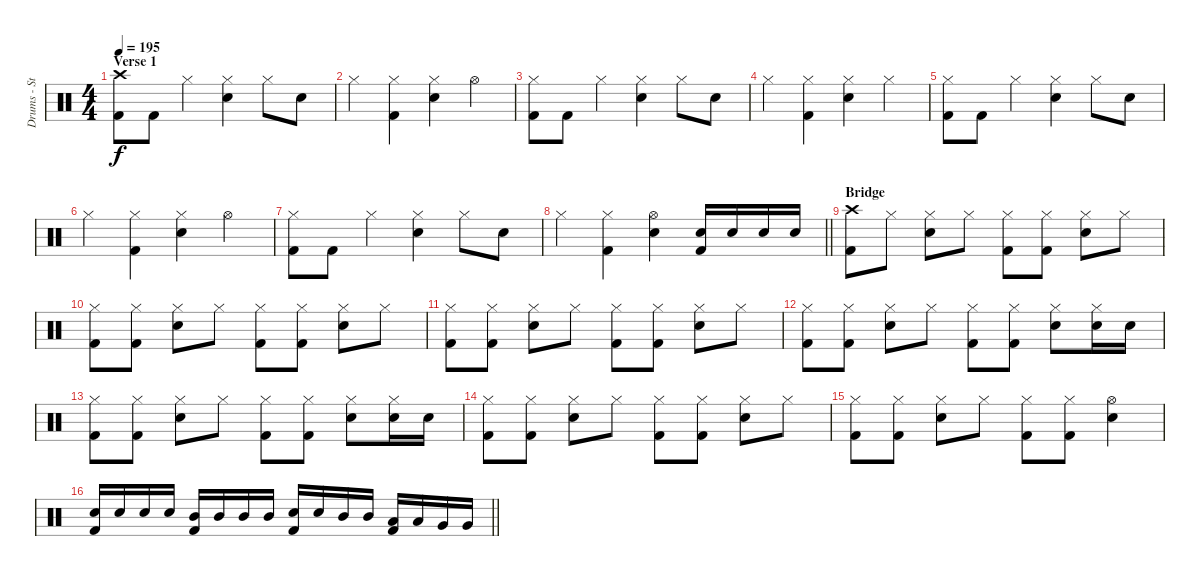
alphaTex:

\track ("Drums - Steve" "Drums - St") {instrument percussion}
\staff {score}
\articulation defaults
\ts (4 4)
\section ("" "Verse 1")
\tempo 195
\clef neutral
\ks c
("Crash high (hit)" "Kick (hit) 2").8{dy f} "Kick (hit) 2".8 "Hi-Hat (closed)".4 ("Hi-Hat (closed)" "Snare (hit) 2").4 "Hi-Hat (closed)".8 "Snare (hit) 2".8 |
"Hi-Hat (closed)".4 ("Hi-Hat (closed)" "Kick (hit) 2").4 ("Hi-Hat (closed)" "Snare (hit) 2").4 "Hi-Hat (open)".4 |
("Hi-Hat (closed)" "Kick (hit) 2").8 "Kick (hit) 2".8 "Hi-Hat (closed)".4 ("Hi-Hat (closed)" "Snare (hit) 2").4 "Hi-Hat (closed)".8 "Snare (hit) 2".8 |
"Hi-Hat (closed)".4 ("Hi-Hat (closed)" "Kick (hit) 2").4 ("Hi-Hat (closed)" "Snare (hit) 2").4 "Hi-Hat (closed)".4 |
("Hi-Hat (closed)" "Kick (hit) 2").8 "Kick (hit) 2".8 "Hi-Hat (closed)".4 ("Hi-Hat (closed)" "Snare (hit) 2").4 "Hi-Hat (closed)".8 "Snare (hit) 2".8 |
"Hi-Hat (closed)".4 ("Hi-Hat (closed)" "Kick (hit) 2").4 ("Hi-Hat (closed)" "Snare (hit) 2").4 "Hi-Hat (open)".4 |
("Hi-Hat (closed)" "Kick (hit) 2").8 "Kick (hit) 2".8 "Hi-Hat (closed)".4 ("Hi-Hat (closed)" "Snare (hit) 2").4 "Hi-Hat (closed)".8 "Snare (hit) 2".8 |
\barLineRight lightlight "Hi-Hat (closed)".4
("Hi-Hat (closed)" "Kick (hit) 2").4 ("Hi-Hat (open)" "Snare (hit) 2").4 ("Snare (hit) 2" "Kick (hit) 2").16 "Snare (hit) 2".16 "Snare (hit) 2".16 "Snare (hit) 2".16 |
\section ("" "Bridge")
("Crash high (hit)" "Kick (hit) 2").8 "Hi-Hat (closed)".8 ("Hi-Hat (closed)" "Snare (hit) 2").8 "Hi-Hat (closed)".8 ("Hi-Hat (closed)" "Kick (hit) 2").8 ("Hi-Hat (closed)" "Kick (hit) 2").8 ("Hi-Hat (closed)" "Snare (hit) 2").8 "Hi-Hat (closed)".8 |
("Hi-Hat (closed)" "Kick (hit) 2").8 ("Hi-Hat (closed)" "Kick (hit) 2").8 ("Hi-Hat (closed)" "Snare (hit) 2").8 "Hi-Hat (closed)".8 ("Hi-Hat (closed)" "Kick (hit) 2").8 ("Hi-Hat (closed)" "Kick (hit) 2").8 ("Hi-Hat (closed)" "Snare (hit) 2").8 "Hi-Hat (closed)".8 |
("Hi-Hat (closed)" "Kick (hit) 2").8 ("Hi-Hat (closed)" "Kick (hit) 2").8 ("Hi-Hat (closed)" "Snare (hit) 2").8 "Hi-Hat (closed)".8 ("Hi-Hat (closed)" "Kick (hit) 2").8 ("Hi-Hat (closed)" "Kick (hit) 2").8 ("Hi-Hat (closed)" "Snare (hit) 2").8 "Hi-Hat (closed)".8 |
("Hi-Hat (closed)" "Kick (hit) 2").8 ("Hi-Hat (closed)" "Kick (hit) 2").8 ("Hi-Hat (closed)" "Snare (hit) 2").8 "Hi-Hat (closed)".8 ("Hi-Hat (closed)" "Kick (hit) 2").8 ("Hi-Hat (closed)" "Kick (hit) 2").8 ("Hi-Hat (closed)" "Snare (hit) 2").8 ("Hi-Hat (closed)" "Snare (hit) 2").16 "Snare (hit) 2".16 |
("Hi-Hat (closed)" "Kick (hit) 2").8 ("Hi-Hat (closed)" "Kick (hit) 2").8 ("Hi-Hat (closed)" "Snare (hit) 2").8 "Hi-Hat (closed)".8 ("Hi-Hat (closed)" "Kick (hit) 2").8 ("Hi-Hat (closed)" "Kick (hit) 2").8 ("Hi-Hat (closed)" "Snare (hit) 2").8 ("Hi-Hat (closed)" "Snare (hit) 2").16 "Snare (hit) 2".16 |
("Hi-Hat (closed)" "Kick (hit) 2").8 ("Hi-Hat (closed)" "Kick (hit) 2").8 ("Hi-Hat (closed)" "Snare (hit) 2").8 "Hi-Hat (closed)".8 ("Hi-Hat (closed)" "Kick (hit) 2").8 ("Hi-Hat (closed)" "Kick (hit) 2").8 ("Hi-Hat (closed)" "Snare (hit) 2").8 "Hi-Hat (closed)".8 |
("Hi-Hat (closed)" "Kick (hit) 2").8 ("Hi-Hat (closed)" "Kick (hit) 2").8 ("Hi-Hat (closed)" "Snare (hit) 2").8 "Hi-Hat (closed)".8 ("Hi-Hat (closed)" "Kick (hit) 2").8 ("Hi-Hat (closed)" "Kick (hit) 2").8 ("Hi-Hat (open)" "Snare (hit) 2").4 |
\barLineRight lightlight
("Snare (hit) 2" "Kick (hit) 2").16 "Snare (hit) 2".16 "Snare (hit) 2".16 "Snare (hit) 2".16 ("Mid Tom (hit)" "Kick (hit) 2").16 "Mid Tom (hit)".16 "Mid Tom (hit)".16 "Mid Tom (hit)".16 ("Snare (hit) 2" "Kick (hit) 2").16 "Snare (hit) 2".16 "Mid Tom (hit)".16 "Mid Tom (hit)".16 ("Low Tom (hit)" "Kick (hit) 2").16 "Low Tom (hit)".16 "Very Low Tom (hit)".16 "Very Low Tom (hit)".16
